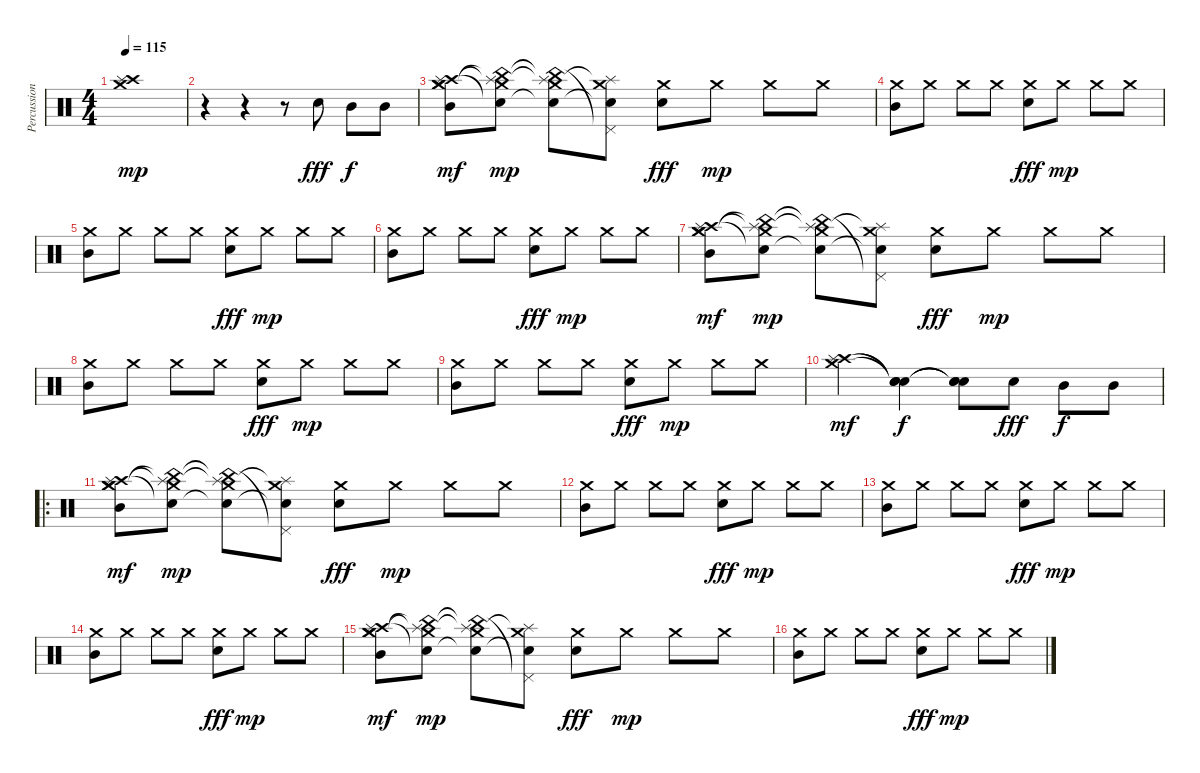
\track ("Percussion" "Percussion") {instrument percussion}
\staff {score}
\articulation defaults
\ts (4 4)
\tempo 115
\clef neutral
\ks c
("Crash medium (hit)" "Crash high (hit)" "Splash (hit)").1{dy mp} |
r.4 r.4 r.8 "Electric Snare (hit)".8{dy fff} "Mid Tom (hit)".8{dy f} "Mid Tom (hit)".8 |
("Crash medium (hit)" "Crash high (hit)" "Crash medium (hit)" "Splash (hit)" "Mid Tom (hit)").8{dy mf} ("China (hit)"{t} "Snare (hit)"{t} "Crash medium (hit)" "Splash (hit)"{t}).8{dy mp} ("China (hit)"{t} "Snare (hit)"{t} "Crash medium (hit)" "Splash (hit)"{t}).8 ("Pedal Hi-Hat (hit)"{t} "Snare (hit)"{t} "Crash medium (hit)" "Splash (hit)"{t}).8 ("Crash medium (hit)" "Electric Snare (hit)").8{dy fff} "Crash medium (hit)".8{dy mp} "Crash medium (hit)".8 "Crash medium (hit)".8 |
("Crash medium (hit)" "Mid Tom (hit)").8 "Crash medium (hit)".8 "Crash medium (hit)".8 "Crash medium (hit)".8 ("Crash medium (hit)" "Electric Snare (hit)").8{dy fff} "Crash medium (hit)".8{dy mp} "Crash medium (hit)".8 "Crash medium (hit)".8 |
("Crash medium (hit)" "Mid Tom (hit)").8 "Crash medium (hit)".8 "Crash medium (hit)".8 "Crash medium (hit)".8 ("Crash medium (hit)" "Electric Snare (hit)").8{dy fff} "Crash medium (hit)".8{dy mp} "Crash medium (hit)".8 "Crash medium (hit)".8 |
("Crash medium (hit)" "Mid Tom (hit)").8 "Crash medium (hit)".8 "Crash medium (hit)".8 "Crash medium (hit)".8 ("Crash medium (hit)" "Electric Snare (hit)").8{dy fff} "Crash medium (hit)".8{dy mp} "Crash medium (hit)".8 "Crash medium (hit)".8 |
("Crash medium (hit)" "Crash high (hit)" "Crash medium (hit)" "Splash (hit)" "Mid Tom (hit)").8{dy mf} ("China (hit)"{t} "Snare (hit)"{t} "Crash medium (hit)" "Splash (hit)"{t}).8{dy mp} ("China (hit)"{t} "Snare (hit)"{t} "Crash medium (hit)" "Splash (hit)"{t}).8 ("Pedal Hi-Hat (hit)"{t} "Snare (hit)"{t} "Crash medium (hit)" "Splash (hit)"{t}).8 ("Crash medium (hit)" "Electric Snare (hit)").8{dy fff} "Crash medium (hit)".8{dy mp} "Crash medium (hit)".8 "Crash medium (hit)".8 |
("Crash medium (hit)" "Mid Tom (hit)").8 "Crash medium (hit)".8 "Crash medium (hit)".8 "Crash medium (hit)".8 ("Crash medium (hit)" "Electric Snare (hit)").8{dy fff} "Crash medium (hit)".8{dy mp} "Crash medium (hit)".8 "Crash medium (hit)".8 |
("Crash medium (hit)" "Mid Tom (hit)").8 "Crash medium (hit)".8 "Crash medium (hit)".8 "Crash medium (hit)".8 ("Crash medium (hit)" "Electric Snare (hit)").8{dy fff} "Crash medium (hit)".8{dy mp} "Crash medium (hit)".8 "Crash medium (hit)".8 |
("Crash medium (hit)" "Crash high (hit)" "Splash (hit)").4{dy mf} ("Snare (hit)"{t} "Snare (hit)"{t} "Snare (hit)"{t}).4{dy f} ("Snare (hit)"{t} "Snare (hit)"{t} "Snare (hit)"{t}).8 "Electric Snare (hit)".8{dy fff} "Mid Tom (hit)".8{dy f} "Mid Tom (hit)".8 |
\ro
("Crash medium (hit)" "Crash high (hit)" "Crash medium (hit)" "Splash (hit)" "Mid Tom (hit)").8{dy mf} ("China (hit)"{t} "Snare (hit)"{t} "Crash medium (hit)" "Splash (hit)"{t}).8{dy mp} ("China (hit)"{t} "Snare (hit)"{t} "Crash medium (hit)" "Splash (hit)"{t}).8 ("Pedal Hi-Hat (hit)"{t} "Snare (hit)"{t} "Crash medium (hit)" "Splash (hit)"{t}).8 ("Crash medium (hit)" "Electric Snare (hit)").8{dy fff} "Crash medium (hit)".8{dy mp} "Crash medium (hit)".8 "Crash medium (hit)".8 |
("Crash medium (hit)" "Mid Tom (hit)").8 "Crash medium (hit)".8 "Crash medium (hit)".8 "Crash medium (hit)".8 ("Crash medium (hit)" "Electric Snare (hit)").8{dy fff} "Crash medium (hit)".8{dy mp} "Crash medium (hit)".8 "Crash medium (hit)".8 |
("Crash medium (hit)" "Mid Tom (hit)").8 "Crash medium (hit)".8 "Crash medium (hit)".8 "Crash medium (hit)".8 ("Crash medium (hit)" "Electric Snare (hit)").8{dy fff} "Crash medium (hit)".8{dy mp} "Crash medium (hit)".8 "Crash medium (hit)".8 |
("Crash medium (hit)" "Mid Tom (hit)").8 "Crash medium (hit)".8 "Crash medium (hit)".8 "Crash medium (hit)".8 ("Crash medium (hit)" "Electric Snare (hit)").8{dy fff} "Crash medium (hit)".8{dy mp} "Crash medium (hit)".8 "Crash medium (hit)".8 |
("Crash medium (hit)" "Crash high (hit)" "Crash medium (hit)" "Splash (hit)" "Mid Tom (hit)").8{dy mf} ("China (hit)"{t} "Snare (hit)"{t} "Crash medium (hit)" "Splash (hit)"{t}).8{dy mp} ("China (hit)"{t} "Snare (hit)"{t} "Crash medium (hit)" "Splash (hit)"{t}).8 ("Pedal Hi-Hat (hit)"{t} "Snare (hit)"{t} "Crash medium (hit)" "Splash (hit)"{t}).8 ("Crash medium (hit)" "Electric Snare (hit)").8{dy fff} "Crash medium (hit)".8{dy mp} "Crash medium (hit)".8 "Crash medium (hit)".8 |
("Crash medium (hit)" "Mid Tom (hit)").8 "Crash medium (hit)".8 "Crash medium (hit)".8 "Crash medium (hit)".8 ("Crash medium (hit)" "Electric Snare (hit)").8{dy fff} "Crash medium (hit)".8{dy mp} "Crash medium (hit)".8 "Crash medium (hit)".8
